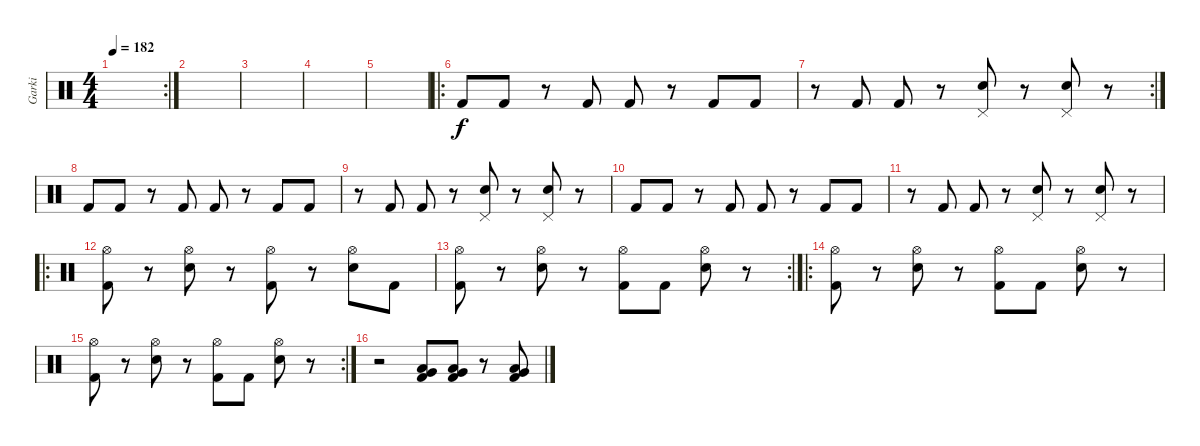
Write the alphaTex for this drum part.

\track ("Garki" "Garki") {instrument percussion}
\staff {score}
\articulation defaults
\rc 2
\ts (4 4)
\tempo 182
\clef neutral
\ks c
|
|
|
|
|
\ro "Kick (hit) 2".8 "Kick (hit) 2".8
r.8 "Kick (hit) 2".8 "Kick (hit) 2".8 r.8 "Kick (hit) 2".8 "Kick (hit) 2".8 |
\rc 2
r.8 "Kick (hit) 2".8 "Kick (hit) 2".8 r.8 ("Snare (hit) 2" "Pedal Hi-Hat (hit)").8 r.8 ("Snare (hit) 2" "Pedal Hi-Hat (hit)").8 r.8 |
"Kick (hit) 2".8 "Kick (hit) 2".8 r.8 "Kick (hit) 2".8 "Kick (hit) 2".8 r.8 "Kick (hit) 2".8 "Kick (hit) 2".8 |
r.8 "Kick (hit) 2".8 "Kick (hit) 2".8 r.8 ("Snare (hit) 2" "Pedal Hi-Hat (hit)").8 r.8 ("Snare (hit) 2" "Pedal Hi-Hat (hit)").8 r.8 |
"Kick (hit) 2".8 "Kick (hit) 2".8 r.8 "Kick (hit) 2".8 "Kick (hit) 2".8 r.8 "Kick (hit) 2".8 "Kick (hit) 2".8 |
r.8 "Kick (hit) 2".8 "Kick (hit) 2".8 r.8 ("Snare (hit) 2" "Pedal Hi-Hat (hit)").8 r.8 ("Snare (hit) 2" "Pedal Hi-Hat (hit)").8 r.8 |
\ro
("Hi-Hat (open)" "Kick (hit) 2").8 r.8 ("Hi-Hat (open)" "Snare (hit) 2").8 r.8 ("Hi-Hat (open)" "Kick (hit) 2").8 r.8 ("Hi-Hat (open)" "Snare (hit) 2").8 "Kick (hit) 2".8 |
\rc 2
("Hi-Hat (open)" "Kick (hit) 2").8 r.8 ("Hi-Hat (open)" "Snare (hit) 2").8 r.8 ("Hi-Hat (open)" "Kick (hit) 2").8 "Kick (hit) 2".8 ("Hi-Hat (open)" "Snare (hit) 2").8 r.8 |
\ro
("Hi-Hat (open)" "Kick (hit) 2").8 r.8 ("Hi-Hat (open)" "Snare (hit) 2").8 r.8 ("Hi-Hat (open)" "Kick (hit) 2").8 "Kick (hit) 2".8 ("Hi-Hat (open)" "Snare (hit) 2").8 r.8 |
\rc 2
("Hi-Hat (open)" "Kick (hit) 2").8 r.8 ("Hi-Hat (open)" "Snare (hit) 2").8 r.8 ("Hi-Hat (open)" "Kick (hit) 2").8 "Kick (hit) 2".8 ("Hi-Hat (open)" "Snare (hit) 2").8 r.8 |
r.2 ("Low Tom (hit)" "Very Low Tom (hit)" "Kick (hit) 2").8 ("Low Tom (hit)" "Very Low Tom (hit)" "Kick (hit) 2").8 r.8 ("Low Tom (hit)" "Very Low Tom (hit)" "Kick (hit) 2").8
